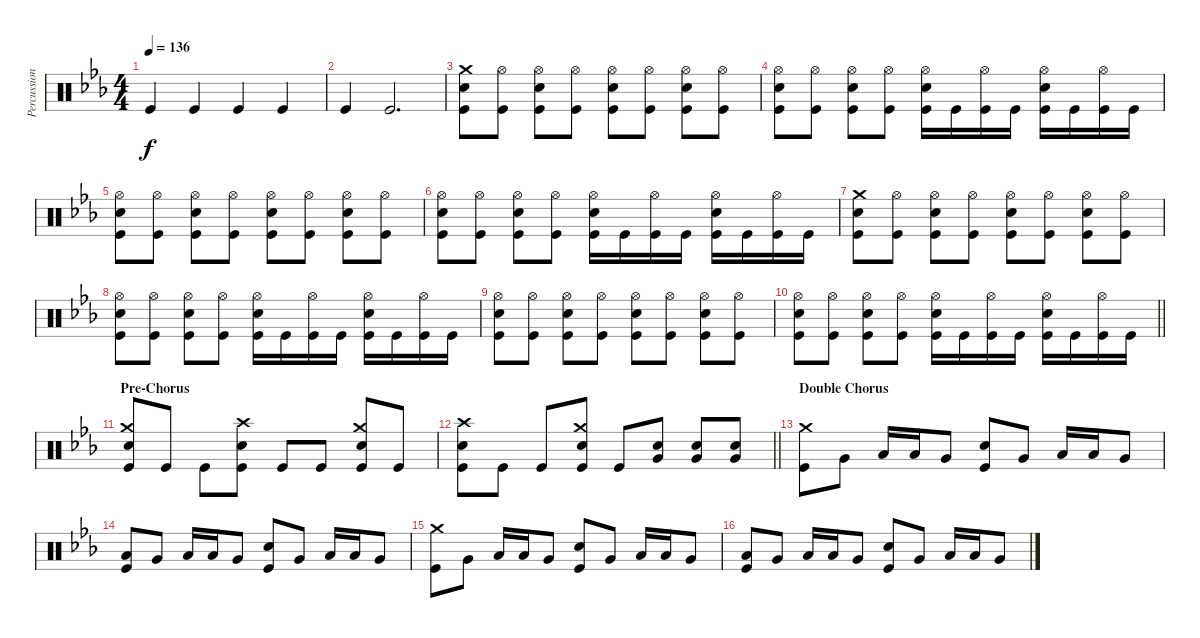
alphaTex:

\track ("Percussion" "Percussion") {instrument percussion}
\staff {score}
\articulation defaults
\ts (4 4)
\tempo 136
\clef neutral
\ks eb "Kick (hit)".4{dy f} "Kick (hit)".4 "Kick (hit)".4 "Kick (hit)".4
|
"Kick (hit)".4 "Kick (hit)".2{d} |
("Crash medium (hit)" "Electric Snare (hit)" "Kick (hit)").8 ("Hi-Hat (open)" "Kick (hit)").8 ("Hi-Hat (open)" "Electric Snare (hit)" "Kick (hit)").8 ("Hi-Hat (open)" "Kick (hit)").8 ("Hi-Hat (open)" "Electric Snare (hit)" "Kick (hit)").8 ("Hi-Hat (open)" "Kick (hit)").8 ("Hi-Hat (open)" "Electric Snare (hit)" "Kick (hit)").8 ("Hi-Hat (open)" "Kick (hit)").8 |
("Hi-Hat (open)" "Electric Snare (hit)" "Kick (hit)").8 ("Hi-Hat (open)" "Kick (hit)").8 ("Hi-Hat (open)" "Electric Snare (hit)" "Kick (hit)").8 ("Hi-Hat (open)" "Kick (hit)").8 ("Hi-Hat (open)" "Electric Snare (hit)" "Kick (hit)").16 "Kick (hit)".16 ("Hi-Hat (open)" "Kick (hit)").16 "Kick (hit)".16 ("Hi-Hat (open)" "Electric Snare (hit)" "Kick (hit)").16 "Kick (hit)".16 ("Hi-Hat (open)" "Kick (hit)").16 "Kick (hit)".16 |
("Hi-Hat (open)" "Electric Snare (hit)" "Kick (hit)").8 ("Hi-Hat (open)" "Kick (hit)").8 ("Hi-Hat (open)" "Electric Snare (hit)" "Kick (hit)").8 ("Hi-Hat (open)" "Kick (hit)").8 ("Hi-Hat (open)" "Electric Snare (hit)" "Kick (hit)").8 ("Hi-Hat (open)" "Kick (hit)").8 ("Hi-Hat (open)" "Electric Snare (hit)" "Kick (hit)").8 ("Hi-Hat (open)" "Kick (hit)").8 |
("Hi-Hat (open)" "Electric Snare (hit)" "Kick (hit)").8 ("Hi-Hat (open)" "Kick (hit)").8 ("Hi-Hat (open)" "Electric Snare (hit)" "Kick (hit)").8 ("Hi-Hat (open)" "Kick (hit)").8 ("Hi-Hat (open)" "Electric Snare (hit)" "Kick (hit)").16 "Kick (hit)".16 ("Hi-Hat (open)" "Kick (hit)").16 "Kick (hit)".16 ("Hi-Hat (open)" "Electric Snare (hit)" "Kick (hit)").16 "Kick (hit)".16 ("Hi-Hat (open)" "Kick (hit)").16 "Kick (hit)".16 |
("Crash medium (hit)" "Electric Snare (hit)" "Kick (hit)").8 ("Hi-Hat (open)" "Kick (hit)").8 ("Hi-Hat (open)" "Electric Snare (hit)" "Kick (hit)").8 ("Hi-Hat (open)" "Kick (hit)").8 ("Hi-Hat (open)" "Electric Snare (hit)" "Kick (hit)").8 ("Hi-Hat (open)" "Kick (hit)").8 ("Hi-Hat (open)" "Electric Snare (hit)" "Kick (hit)").8 ("Hi-Hat (open)" "Kick (hit)").8 |
("Hi-Hat (open)" "Electric Snare (hit)" "Kick (hit)").8 ("Hi-Hat (open)" "Kick (hit)").8 ("Hi-Hat (open)" "Electric Snare (hit)" "Kick (hit)").8 ("Hi-Hat (open)" "Kick (hit)").8 ("Hi-Hat (open)" "Electric Snare (hit)" "Kick (hit)").16 "Kick (hit)".16 ("Hi-Hat (open)" "Kick (hit)").16 "Kick (hit)".16 ("Hi-Hat (open)" "Electric Snare (hit)" "Kick (hit)").16 "Kick (hit)".16 ("Hi-Hat (open)" "Kick (hit)").16 "Kick (hit)".16 |
("Hi-Hat (open)" "Electric Snare (hit)" "Kick (hit)").8 ("Hi-Hat (open)" "Kick (hit)").8 ("Hi-Hat (open)" "Electric Snare (hit)" "Kick (hit)").8 ("Hi-Hat (open)" "Kick (hit)").8 ("Hi-Hat (open)" "Electric Snare (hit)" "Kick (hit)").8 ("Hi-Hat (open)" "Kick (hit)").8 ("Hi-Hat (open)" "Electric Snare (hit)" "Kick (hit)").8 ("Hi-Hat (open)" "Kick (hit)").8 |
\barLineRight lightlight
("Hi-Hat (open)" "Electric Snare (hit)" "Kick (hit)").8 ("Hi-Hat (open)" "Kick (hit)").8 ("Hi-Hat (open)" "Electric Snare (hit)" "Kick (hit)").8 ("Hi-Hat (open)" "Kick (hit)").8 ("Hi-Hat (open)" "Electric Snare (hit)" "Kick (hit)").16 "Kick (hit)".16 ("Hi-Hat (open)" "Kick (hit)").16 "Kick (hit)".16 ("Hi-Hat (open)" "Electric Snare (hit)" "Kick (hit)").16 "Kick (hit)".16 ("Hi-Hat (open)" "Kick (hit)").16 "Kick (hit)".16 |
\section ("" "Pre-Chorus")
("Crash medium (hit)" "Electric Snare (hit)" "Kick (hit)").8 "Kick (hit)".8 "Kick (hit)".8 ("Crash high (hit)" "Electric Snare (hit)" "Kick (hit)").8 "Kick (hit)".8 "Kick (hit)".8 ("Crash medium (hit)" "Electric Snare (hit)" "Kick (hit)").8 "Kick (hit)".8 |
\barLineRight lightlight
("Crash high (hit)" "Electric Snare (hit)" "Kick (hit)").8 "Kick (hit)".8 "Kick (hit)".8 ("Crash medium (hit)" "Electric Snare (hit)" "Kick (hit)").8 "Kick (hit)".8 ("Very Low Tom (hit)" "Electric Snare (hit)").8 ("Very Low Tom (hit)" "Electric Snare (hit)").8 ("Very Low Tom (hit)" "Electric Snare (hit)").8 |
\section ("" "Double Chorus")
("Crash medium (hit)" "Kick (hit)").8 "Very Low Tom (hit)".8 "Low Tom (hit)".16 "Low Tom (hit)".16 "Very Low Tom (hit)".8 ("Electric Snare (hit)" "Kick (hit)").8 "Very Low Tom (hit)".8 "Low Tom (hit)".16 "Low Tom (hit)".16 "Very Low Tom (hit)".8 |
("Low Tom (hit)" "Kick (hit)").8 "Very Low Tom (hit)".8 "Low Tom (hit)".16 "Low Tom (hit)".16 "Very Low Tom (hit)".8 ("Electric Snare (hit)" "Kick (hit)").8 "Very Low Tom (hit)".8 "Low Tom (hit)".16 "Low Tom (hit)".16 "Very Low Tom (hit)".8 |
("Crash medium (hit)" "Kick (hit)").8 "Very Low Tom (hit)".8 "Low Tom (hit)".16 "Low Tom (hit)".16 "Very Low Tom (hit)".8 ("Electric Snare (hit)" "Kick (hit)").8 "Very Low Tom (hit)".8 "Low Tom (hit)".16 "Low Tom (hit)".16 "Very Low Tom (hit)".8 |
("Low Tom (hit)" "Kick (hit)").8 "Very Low Tom (hit)".8 "Low Tom (hit)".16 "Low Tom (hit)".16 "Very Low Tom (hit)".8 ("Electric Snare (hit)" "Kick (hit)").8 "Very Low Tom (hit)".8 "Low Tom (hit)".16 "Low Tom (hit)".16 "Very Low Tom (hit)".8
